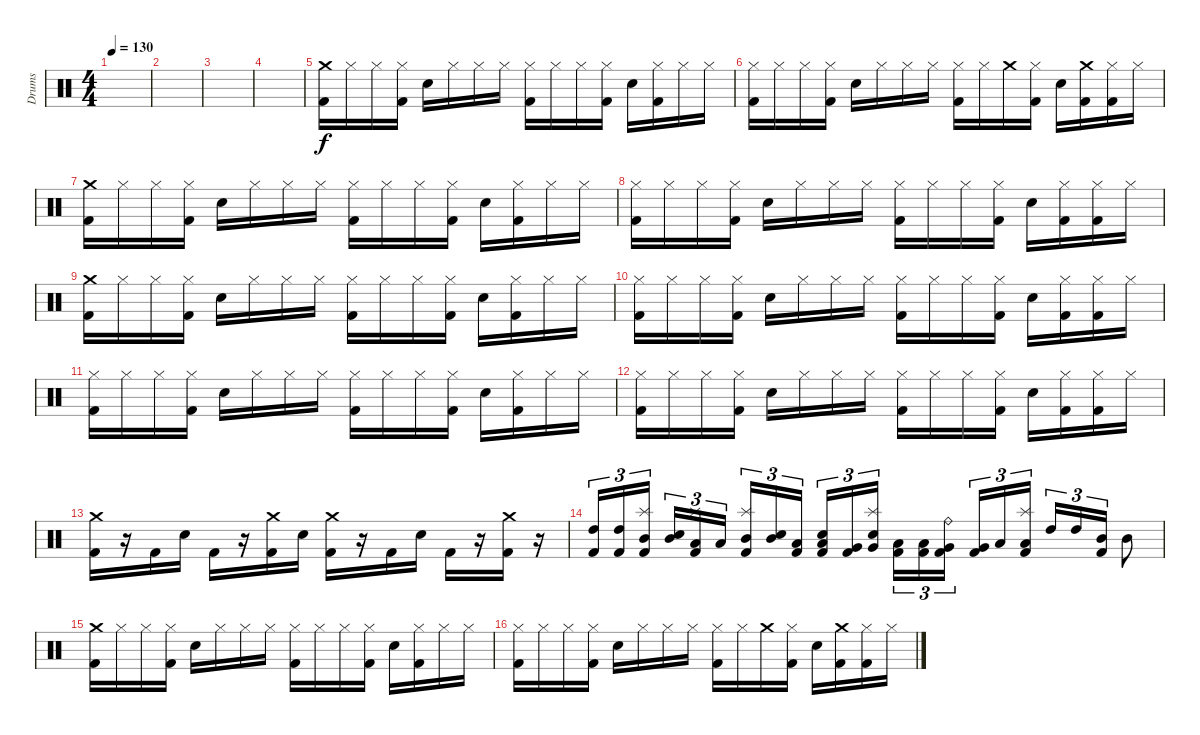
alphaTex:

\track ("Drums" "Drums") {instrument percussion}
\staff {score}
\articulation defaults
\ts (4 4)
\tempo 130
\clef neutral
\ks c
|
|
|
|
("Crash medium (hit)" "Kick (hit) 2").16 "Hi-Hat (closed)".16 "Hi-Hat (closed)".16 ("Hi-Hat (closed)" "Kick (hit) 2").16 "Snare (hit) 2".16 "Hi-Hat (closed)".16 "Hi-Hat (closed)".16 "Hi-Hat (closed)".16 ("Hi-Hat (closed)" "Kick (hit) 2").16 "Hi-Hat (closed)".16 "Hi-Hat (closed)".16 ("Hi-Hat (closed)" "Kick (hit) 2").16 "Snare (hit) 2".16 ("Hi-Hat (closed)" "Kick (hit) 2").16 "Hi-Hat (closed)".16 "Hi-Hat (closed)".16 |
("Hi-Hat (closed)" "Kick (hit) 2").16 "Hi-Hat (closed)".16 "Hi-Hat (closed)".16 ("Hi-Hat (closed)" "Kick (hit) 2").16 "Snare (hit) 2".16 "Hi-Hat (closed)".16 "Hi-Hat (closed)".16 "Hi-Hat (closed)".16 ("Hi-Hat (closed)" "Kick (hit) 2").16 "Hi-Hat (closed)".16 "Crash medium (hit)".16 ("Hi-Hat (closed)" "Kick (hit) 2").16 "Snare (hit) 2".16 ("Crash medium (hit)" "Kick (hit) 2").16 ("Hi-Hat (closed)" "Kick (hit) 2").16 "Hi-Hat (closed)".16 |
("Crash medium (hit)" "Kick (hit) 2").16 "Hi-Hat (closed)".16 "Hi-Hat (closed)".16 ("Hi-Hat (closed)" "Kick (hit) 2").16 "Snare (hit) 2".16 "Hi-Hat (closed)".16 "Hi-Hat (closed)".16 "Hi-Hat (closed)".16 ("Hi-Hat (closed)" "Kick (hit) 2").16 "Hi-Hat (closed)".16 "Hi-Hat (closed)".16 ("Hi-Hat (closed)" "Kick (hit) 2").16 "Snare (hit) 2".16 ("Hi-Hat (closed)" "Kick (hit) 2").16 "Hi-Hat (closed)".16 "Hi-Hat (closed)".16 |
("Hi-Hat (closed)" "Kick (hit) 2").16 "Hi-Hat (closed)".16 "Hi-Hat (closed)".16 ("Hi-Hat (closed)" "Kick (hit) 2").16 "Snare (hit) 2".16 "Hi-Hat (closed)".16 "Hi-Hat (closed)".16 "Hi-Hat (closed)".16 ("Hi-Hat (closed)" "Kick (hit) 2").16 "Hi-Hat (closed)".16 "Hi-Hat (closed)".16 ("Hi-Hat (closed)" "Kick (hit) 2").16 "Snare (hit) 2".16 ("Hi-Hat (closed)" "Kick (hit) 2").16 ("Hi-Hat (closed)" "Kick (hit) 2").16 "Hi-Hat (closed)".16 |
("Crash medium (hit)" "Kick (hit) 2").16 "Hi-Hat (closed)".16 "Hi-Hat (closed)".16 ("Hi-Hat (closed)" "Kick (hit) 2").16 "Snare (hit) 2".16 "Hi-Hat (closed)".16 "Hi-Hat (closed)".16 "Hi-Hat (closed)".16 ("Hi-Hat (closed)" "Kick (hit) 2").16 "Hi-Hat (closed)".16 "Hi-Hat (closed)".16 ("Hi-Hat (closed)" "Kick (hit) 2").16 "Snare (hit) 2".16 ("Hi-Hat (closed)" "Kick (hit) 2").16 "Hi-Hat (closed)".16 "Hi-Hat (closed)".16 |
("Hi-Hat (closed)" "Kick (hit) 2").16 "Hi-Hat (closed)".16 "Hi-Hat (closed)".16 ("Hi-Hat (closed)" "Kick (hit) 2").16 "Snare (hit) 2".16 "Hi-Hat (closed)".16 "Hi-Hat (closed)".16 "Hi-Hat (closed)".16 ("Hi-Hat (closed)" "Kick (hit) 2").16 "Hi-Hat (closed)".16 "Hi-Hat (closed)".16 ("Hi-Hat (closed)" "Kick (hit) 2").16 "Snare (hit) 2".16 ("Hi-Hat (closed)" "Kick (hit) 2").16 ("Hi-Hat (closed)" "Kick (hit) 2").16 "Hi-Hat (closed)".16 |
("Hi-Hat (closed)" "Kick (hit) 2").16 "Hi-Hat (closed)".16 "Hi-Hat (closed)".16 ("Hi-Hat (closed)" "Kick (hit) 2").16 "Snare (hit) 2".16 "Hi-Hat (closed)".16 "Hi-Hat (closed)".16 "Hi-Hat (closed)".16 ("Hi-Hat (closed)" "Kick (hit) 2").16 "Hi-Hat (closed)".16 "Hi-Hat (closed)".16 ("Hi-Hat (closed)" "Kick (hit) 2").16 "Snare (hit) 2".16 ("Hi-Hat (closed)" "Kick (hit) 2").16 "Hi-Hat (closed)".16 "Hi-Hat (closed)".16 |
("Hi-Hat (closed)" "Kick (hit) 2").16 "Hi-Hat (closed)".16 "Hi-Hat (closed)".16 ("Hi-Hat (closed)" "Kick (hit) 2").16 "Snare (hit) 2".16 "Hi-Hat (closed)".16 "Hi-Hat (closed)".16 "Hi-Hat (closed)".16 ("Hi-Hat (closed)" "Kick (hit) 2").16 "Hi-Hat (closed)".16 "Hi-Hat (closed)".16 ("Hi-Hat (closed)" "Kick (hit) 2").16 "Snare (hit) 2".16 ("Hi-Hat (closed)" "Kick (hit) 2").16 ("Hi-Hat (closed)" "Kick (hit) 2").16 "Hi-Hat (closed)".16 |
("Crash medium (hit)" "Kick (hit) 2").16 r.16 "Kick (hit) 2".16 "Snare (hit) 2".16 "Kick (hit) 2".16 r.16 ("Crash medium (hit)" "Kick (hit) 2").16 "Snare (hit) 2".16 ("Crash medium (hit)" "Kick (hit) 2").16 r.16 "Kick (hit) 2".16 "Snare (hit) 2".16 "Kick (hit) 2".16 r.16 ("Crash medium (hit)" "Kick (hit) 2").16 r.16 |
("High Tom (hit)" "Kick (hit) 2").16{tu (3 2)} ("High Tom (hit)" "Kick (hit) 2").16{tu (3 2)} ("Splash (hit)" "Mid Tom (hit)" "Kick (hit) 2").16{tu (3 2)} ("Mid Tom (hit)" "Snare (hit) 2").16{tu (3 2)} ("Splash (hit)" "Low Tom (hit)" "Kick (hit) 2").16{tu (3 2)} "Low Tom (hit)".16{tu (3 2)} ("Mid Tom (hit)" "Splash (hit)" "Kick (hit) 2").16{tu (3 2)} ("Mid Tom (hit)" "Snare (hit) 2").16{tu (3 2)} ("Low Tom (hit)" "Kick (hit) 2").16{tu (3 2)} ("Low Tom (hit)" "Snare (hit) 2" "Kick (hit) 2").16{tu (3 2)} ("Very Low Tom (hit)" "Kick (hit) 2").16{tu (3 2)} ("Splash (hit)" "Snare (hit) 2" "Very Low Tom (hit)").16{tu (3 2)} ("Low Tom (hit)" "Kick (hit) 2").16{tu (3 2)} ("Low Tom (hit)" "Kick (hit) 2").16{tu (3 2)} ("Ride (bell)" "Very Low Tom (hit)" "Kick (hit) 2").16{tu (3 2)} ("Very Low Tom (hit)" "Kick (hit) 2").16{tu (3 2)} "Low Floor Tom (hit)".16{tu (3 2)} ("Splash (hit)" "Low Floor Tom (hit)" "Kick (hit) 2").16{tu (3 2)} "High Tom (hit)".16{tu (3 2)} "High Tom (hit)".16{tu (3 2)} ("Mid Tom (hit)" "Kick (hit) 2").16{tu (3 2)} "Mid Tom (hit)".8 |
("Crash medium (hit)" "Kick (hit) 2").16 "Hi-Hat (closed)".16 "Hi-Hat (closed)".16 ("Hi-Hat (closed)" "Kick (hit) 2").16 "Snare (hit) 2".16 "Hi-Hat (closed)".16 "Hi-Hat (closed)".16 "Hi-Hat (closed)".16 ("Hi-Hat (closed)" "Kick (hit) 2").16 "Hi-Hat (closed)".16 "Hi-Hat (closed)".16 ("Hi-Hat (closed)" "Kick (hit) 2").16 "Snare (hit) 2".16 ("Hi-Hat (closed)" "Kick (hit) 2").16 "Hi-Hat (closed)".16 "Hi-Hat (closed)".16 |
("Hi-Hat (closed)" "Kick (hit) 2").16 "Hi-Hat (closed)".16 "Hi-Hat (closed)".16 ("Hi-Hat (closed)" "Kick (hit) 2").16 "Snare (hit) 2".16 "Hi-Hat (closed)".16 "Hi-Hat (closed)".16 "Hi-Hat (closed)".16 ("Hi-Hat (closed)" "Kick (hit) 2").16 "Hi-Hat (closed)".16 "Crash medium (hit)".16 ("Hi-Hat (closed)" "Kick (hit) 2").16 "Snare (hit) 2".16 ("Crash medium (hit)" "Kick (hit) 2").16 ("Hi-Hat (closed)" "Kick (hit) 2").16 "Hi-Hat (closed)".16
